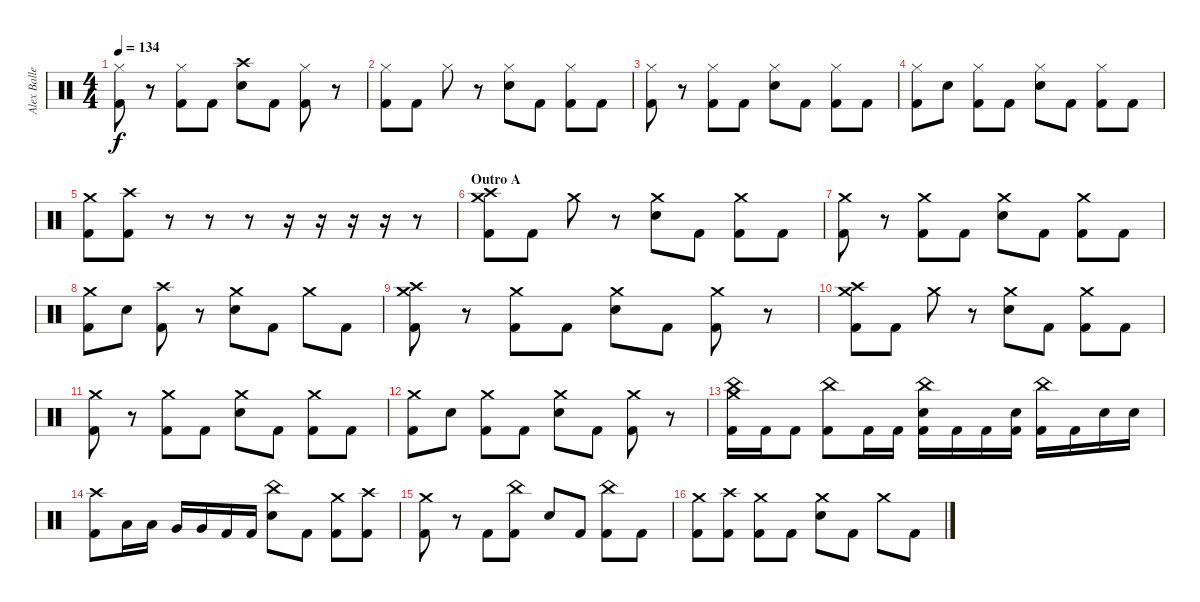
\track ("Alex Ballew" "Alex Balle") {instrument percussion}
\staff {score}
\articulation defaults
\ts (4 4)
\tempo 134
\clef neutral
\ks c
("Hi-Hat (closed)" "Kick (hit) 2").8{dy f} r.8 ("Hi-Hat (closed)" "Kick (hit) 2").8 "Kick (hit) 2".8 ("Crash high (hit)" "Electric Snare (hit)").8 "Kick (hit) 2".8 ("Hi-Hat (closed)" "Kick (hit) 2").8 r.8 |
("Hi-Hat (closed)" "Kick (hit) 2").8 "Kick (hit) 2".8 "Hi-Hat (closed)".8 r.8 ("Hi-Hat (closed)" "Electric Snare (hit)").8 "Kick (hit) 2".8 ("Hi-Hat (closed)" "Kick (hit) 2").8 "Kick (hit) 2".8 |
("Hi-Hat (closed)" "Kick (hit) 2").8 r.8 ("Hi-Hat (closed)" "Kick (hit) 2").8 "Kick (hit) 2".8 ("Hi-Hat (closed)" "Electric Snare (hit)").8 "Kick (hit) 2".8 ("Hi-Hat (closed)" "Kick (hit) 2").8 "Kick (hit) 2".8 |
("Hi-Hat (closed)" "Kick (hit) 2").8 "Electric Snare (hit)".8 ("Hi-Hat (closed)" "Kick (hit) 2").8 "Kick (hit) 2".8 ("Hi-Hat (closed)" "Electric Snare (hit)").8 "Kick (hit) 2".8 ("Hi-Hat (closed)" "Kick (hit) 2").8 "Kick (hit) 2".8 |
("Crash medium (hit)" "Kick (hit) 2").8 ("Crash high (hit)" "Kick (hit) 2").8 r.8 r.8 r.8 r.16 r.16 r.16 r.16 r.8 |
\section ("" "Outro A")
("Crash medium (hit)" "Crash high (hit)" "Kick (hit) 2").8 "Kick (hit) 2".8 "Crash medium (hit)".8 r.8 ("Crash medium (hit)" "Electric Snare (hit)").8 "Kick (hit) 2".8 ("Crash medium (hit)" "Kick (hit) 2").8 "Kick (hit) 2".8 |
("Crash medium (hit)" "Kick (hit) 2").8 r.8 ("Crash medium (hit)" "Kick (hit) 2").8 "Kick (hit) 2".8 ("Crash medium (hit)" "Electric Snare (hit)").8 "Kick (hit) 2".8 ("Crash medium (hit)" "Kick (hit) 2").8 "Kick (hit) 2".8 |
("Crash medium (hit)" "Kick (hit) 2").8 "Electric Snare (hit)".8 ("Crash high (hit)" "Kick (hit) 2").8 r.8 ("Crash medium (hit)" "Electric Snare (hit)").8 "Kick (hit) 2".8 "Crash medium (hit)".8 "Kick (hit) 2".8 |
("Crash medium (hit)" "Crash high (hit)" "Kick (hit) 2").8 r.8 ("Crash medium (hit)" "Kick (hit) 2").8 "Kick (hit) 2".8 ("Crash medium (hit)" "Electric Snare (hit)").8 "Kick (hit) 2".8 ("Crash medium (hit)" "Kick (hit) 2").8 r.8 |
("Crash medium (hit)" "Crash high (hit)" "Kick (hit) 2").8 "Kick (hit) 2".8 "Crash medium (hit)".8 r.8 ("Crash medium (hit)" "Electric Snare (hit)").8 "Kick (hit) 2".8 ("Crash medium (hit)" "Kick (hit) 2").8 "Kick (hit) 2".8 |
("Crash medium (hit)" "Kick (hit) 2").8 r.8 ("Crash medium (hit)" "Kick (hit) 2").8 "Kick (hit) 2".8 ("Crash medium (hit)" "Electric Snare (hit)").8 "Kick (hit) 2".8 ("Crash medium (hit)" "Kick (hit) 2").8 "Kick (hit) 2".8 |
("Crash medium (hit)" "Kick (hit) 2").8 "Electric Snare (hit)".8 ("Crash medium (hit)" "Kick (hit) 2").8 "Kick (hit) 2".8 ("Crash medium (hit)" "Electric Snare (hit)").8 "Kick (hit) 2".8 ("Crash medium (hit)" "Kick (hit) 2").8 r.8 |
("China (hit)" "Crash medium (hit)" "Kick (hit) 2").16 "Kick (hit) 2".16 "Kick (hit) 2".8 ("China (hit)" "Kick (hit) 2").8 "Kick (hit) 2".16 "Kick (hit) 2".16 ("China (hit)" "Electric Snare (hit)" "Kick (hit) 2").16 "Kick (hit) 2".16 "Kick (hit) 2".16 ("Electric Snare (hit)" "Kick (hit) 2").16 ("China (hit)" "Kick (hit) 2").16 "Kick (hit) 2".16 "Electric Snare (hit)".16 "Electric Snare (hit)".16 |
("Crash high (hit)" "Kick (hit) 2").8 "Low Tom (hit)".16 "Low Tom (hit)".16 "Very Low Tom (hit)".16 "Very Low Tom (hit)".16 "Kick (hit) 2".16 "Kick (hit) 2".16 ("China (hit)" "Electric Snare (hit)").8 "Kick (hit) 2".8 ("Crash medium (hit)" "Kick (hit) 2").8 ("Crash high (hit)" "Kick (hit) 2").8 |
("Crash medium (hit)" "Kick (hit) 2").8 r.8 "Kick (hit) 2".8 ("China (hit)" "Kick (hit) 2").8 "Electric Snare (hit)".8 "Kick (hit) 2".8 ("China (hit)" "Kick (hit) 2").8 "Kick (hit) 2".8 |
("Crash medium (hit)" "Kick (hit) 2").8 ("Crash high (hit)" "Kick (hit) 2").8 ("Crash medium (hit)" "Kick (hit) 2").8 "Kick (hit) 2".8 ("Crash medium (hit)" "Electric Snare (hit)").8 "Kick (hit) 2".8 "Crash medium (hit)".8 "Kick (hit) 2".8
